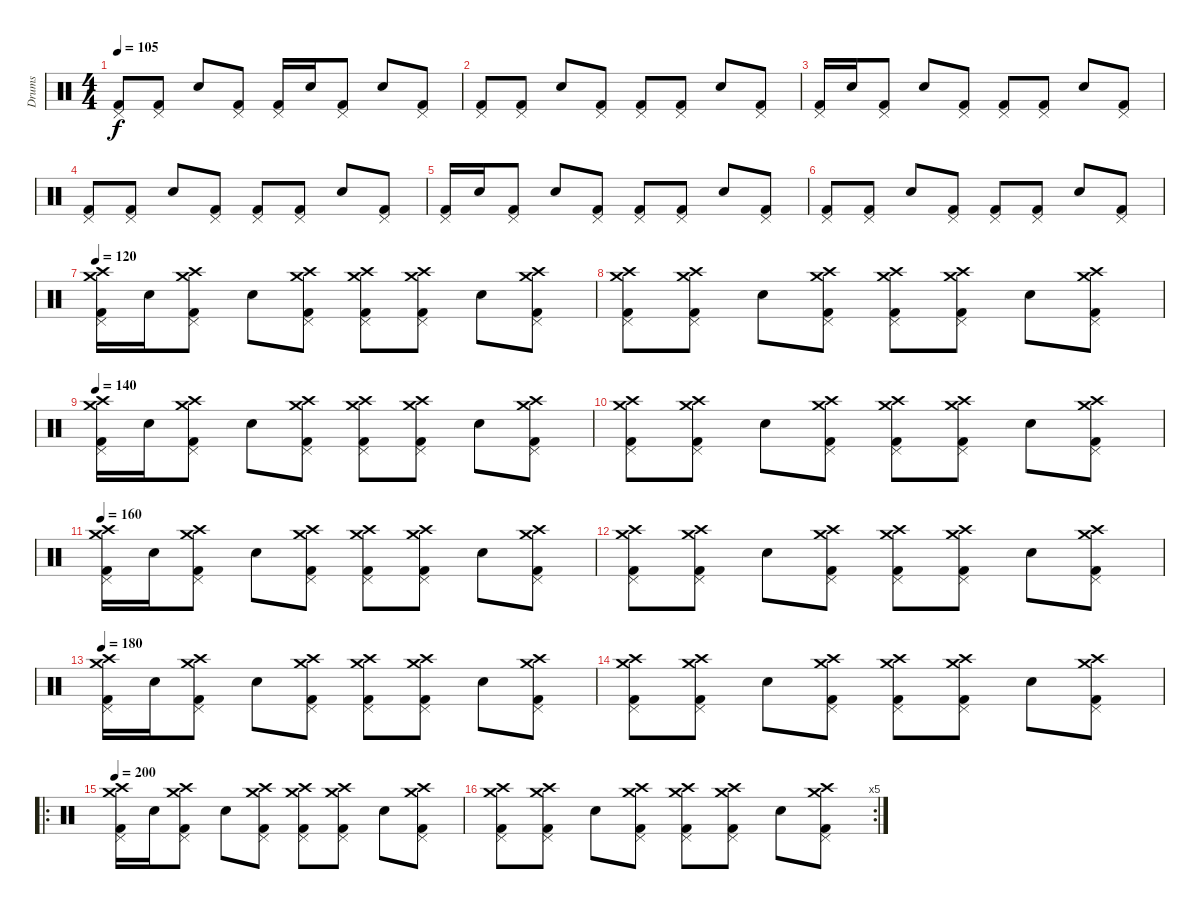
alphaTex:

\track ("Drums" "Drums") {instrument percussion}
\staff {score}
\articulation defaults
\ts (4 4)
\tempo 105
\clef neutral
\ks c
("Kick (hit) 2" "Pedal Hi-Hat (hit)").8{dy f} ("Kick (hit) 2" "Pedal Hi-Hat (hit)").8 "Snare (hit) 2".8 ("Kick (hit) 2" "Pedal Hi-Hat (hit)").8 ("Kick (hit) 2" "Pedal Hi-Hat (hit)").16 "Snare (hit) 2".16 ("Kick (hit) 2" "Pedal Hi-Hat (hit)").8 "Snare (hit) 2".8 ("Kick (hit) 2" "Pedal Hi-Hat (hit)").8 |
("Kick (hit) 2" "Pedal Hi-Hat (hit)").8 ("Kick (hit) 2" "Pedal Hi-Hat (hit)").8 "Snare (hit) 2".8 ("Kick (hit) 2" "Pedal Hi-Hat (hit)").8 ("Kick (hit) 2" "Pedal Hi-Hat (hit)").8 ("Kick (hit) 2" "Pedal Hi-Hat (hit)").8 "Snare (hit) 2".8 ("Kick (hit) 2" "Pedal Hi-Hat (hit)").8 |
("Kick (hit) 2" "Pedal Hi-Hat (hit)").16 "Snare (hit) 2".16 ("Kick (hit) 2" "Pedal Hi-Hat (hit)").8 "Snare (hit) 2".8 ("Kick (hit) 2" "Pedal Hi-Hat (hit)").8 ("Kick (hit) 2" "Pedal Hi-Hat (hit)").8 ("Kick (hit) 2" "Pedal Hi-Hat (hit)").8 "Snare (hit) 2".8 ("Kick (hit) 2" "Pedal Hi-Hat (hit)").8 |
("Kick (hit) 2" "Pedal Hi-Hat (hit)").8 ("Kick (hit) 2" "Pedal Hi-Hat (hit)").8 "Snare (hit) 2".8 ("Kick (hit) 2" "Pedal Hi-Hat (hit)").8 ("Kick (hit) 2" "Pedal Hi-Hat (hit)").8 ("Kick (hit) 2" "Pedal Hi-Hat (hit)").8 "Snare (hit) 2".8 ("Kick (hit) 2" "Pedal Hi-Hat (hit)").8 |
("Kick (hit) 2" "Pedal Hi-Hat (hit)").16 "Snare (hit) 2".16 ("Kick (hit) 2" "Pedal Hi-Hat (hit)").8 "Snare (hit) 2".8 ("Kick (hit) 2" "Pedal Hi-Hat (hit)").8 ("Kick (hit) 2" "Pedal Hi-Hat (hit)").8 ("Kick (hit) 2" "Pedal Hi-Hat (hit)").8 "Snare (hit) 2".8 ("Kick (hit) 2" "Pedal Hi-Hat (hit)").8 |
("Kick (hit) 2" "Pedal Hi-Hat (hit)").8 ("Kick (hit) 2" "Pedal Hi-Hat (hit)").8 "Snare (hit) 2".8 ("Kick (hit) 2" "Pedal Hi-Hat (hit)").8 ("Kick (hit) 2" "Pedal Hi-Hat (hit)").8 ("Kick (hit) 2" "Pedal Hi-Hat (hit)").8 "Snare (hit) 2".8 ("Kick (hit) 2" "Pedal Hi-Hat (hit)").8 |
\tempo 120
("Crash medium (hit)" "Kick (hit) 2" "Pedal Hi-Hat (hit)" "Crash high (hit)").16 "Snare (hit) 2".16 ("Crash medium (hit)" "Kick (hit) 2" "Pedal Hi-Hat (hit)" "Crash high (hit)").8 "Snare (hit) 2".8 ("Crash medium (hit)" "Kick (hit) 2" "Pedal Hi-Hat (hit)" "Crash high (hit)").8 ("Crash medium (hit)" "Kick (hit) 2" "Pedal Hi-Hat (hit)" "Crash high (hit)").8 ("Crash medium (hit)" "Kick (hit) 2" "Pedal Hi-Hat (hit)" "Crash high (hit)").8 "Snare (hit) 2".8 ("Crash medium (hit)" "Kick (hit) 2" "Pedal Hi-Hat (hit)" "Crash high (hit)").8 |
("Crash medium (hit)" "Kick (hit) 2" "Pedal Hi-Hat (hit)" "Crash high (hit)").8 ("Crash medium (hit)" "Kick (hit) 2" "Pedal Hi-Hat (hit)" "Crash high (hit)").8 "Snare (hit) 2".8 ("Crash medium (hit)" "Kick (hit) 2" "Pedal Hi-Hat (hit)" "Crash high (hit)").8 ("Crash medium (hit)" "Kick (hit) 2" "Pedal Hi-Hat (hit)" "Crash high (hit)").8 ("Crash medium (hit)" "Kick (hit) 2" "Pedal Hi-Hat (hit)" "Crash high (hit)").8 "Snare (hit) 2".8 ("Crash medium (hit)" "Kick (hit) 2" "Pedal Hi-Hat (hit)" "Crash high (hit)").8 |
\tempo 140
("Crash medium (hit)" "Kick (hit) 2" "Pedal Hi-Hat (hit)" "Crash high (hit)").16 "Snare (hit) 2".16 ("Crash medium (hit)" "Kick (hit) 2" "Pedal Hi-Hat (hit)" "Crash high (hit)").8 "Snare (hit) 2".8 ("Crash medium (hit)" "Kick (hit) 2" "Pedal Hi-Hat (hit)" "Crash high (hit)").8 ("Crash medium (hit)" "Kick (hit) 2" "Pedal Hi-Hat (hit)" "Crash high (hit)").8 ("Crash medium (hit)" "Kick (hit) 2" "Pedal Hi-Hat (hit)" "Crash high (hit)").8 "Snare (hit) 2".8 ("Crash medium (hit)" "Kick (hit) 2" "Pedal Hi-Hat (hit)" "Crash high (hit)").8 |
("Crash medium (hit)" "Kick (hit) 2" "Pedal Hi-Hat (hit)" "Crash high (hit)").8 ("Crash medium (hit)" "Kick (hit) 2" "Pedal Hi-Hat (hit)" "Crash high (hit)").8 "Snare (hit) 2".8 ("Crash medium (hit)" "Kick (hit) 2" "Pedal Hi-Hat (hit)" "Crash high (hit)").8 ("Crash medium (hit)" "Kick (hit) 2" "Pedal Hi-Hat (hit)" "Crash high (hit)").8 ("Crash medium (hit)" "Kick (hit) 2" "Pedal Hi-Hat (hit)" "Crash high (hit)").8 "Snare (hit) 2".8 ("Crash medium (hit)" "Kick (hit) 2" "Pedal Hi-Hat (hit)" "Crash high (hit)").8 |
\tempo 160
("Crash medium (hit)" "Kick (hit) 2" "Pedal Hi-Hat (hit)" "Crash high (hit)").16 "Snare (hit) 2".16 ("Crash medium (hit)" "Kick (hit) 2" "Pedal Hi-Hat (hit)" "Crash high (hit)").8 "Snare (hit) 2".8 ("Crash medium (hit)" "Kick (hit) 2" "Pedal Hi-Hat (hit)" "Crash high (hit)").8 ("Crash medium (hit)" "Kick (hit) 2" "Pedal Hi-Hat (hit)" "Crash high (hit)").8 ("Crash medium (hit)" "Kick (hit) 2" "Pedal Hi-Hat (hit)" "Crash high (hit)").8 "Snare (hit) 2".8 ("Crash medium (hit)" "Kick (hit) 2" "Pedal Hi-Hat (hit)" "Crash high (hit)").8 |
("Crash medium (hit)" "Kick (hit) 2" "Pedal Hi-Hat (hit)" "Crash high (hit)").8 ("Crash medium (hit)" "Kick (hit) 2" "Pedal Hi-Hat (hit)" "Crash high (hit)").8 "Snare (hit) 2".8 ("Crash medium (hit)" "Kick (hit) 2" "Pedal Hi-Hat (hit)" "Crash high (hit)").8 ("Crash medium (hit)" "Kick (hit) 2" "Pedal Hi-Hat (hit)" "Crash high (hit)").8 ("Crash medium (hit)" "Kick (hit) 2" "Pedal Hi-Hat (hit)" "Crash high (hit)").8 "Snare (hit) 2".8 ("Crash medium (hit)" "Kick (hit) 2" "Pedal Hi-Hat (hit)" "Crash high (hit)").8 |
\tempo 180
("Crash medium (hit)" "Kick (hit) 2" "Pedal Hi-Hat (hit)" "Crash high (hit)").16 "Snare (hit) 2".16 ("Crash medium (hit)" "Kick (hit) 2" "Pedal Hi-Hat (hit)" "Crash high (hit)").8 "Snare (hit) 2".8 ("Crash medium (hit)" "Kick (hit) 2" "Pedal Hi-Hat (hit)" "Crash high (hit)").8 ("Crash medium (hit)" "Kick (hit) 2" "Pedal Hi-Hat (hit)" "Crash high (hit)").8 ("Crash medium (hit)" "Kick (hit) 2" "Pedal Hi-Hat (hit)" "Crash high (hit)").8 "Snare (hit) 2".8 ("Crash medium (hit)" "Kick (hit) 2" "Pedal Hi-Hat (hit)" "Crash high (hit)").8 |
("Crash medium (hit)" "Kick (hit) 2" "Pedal Hi-Hat (hit)" "Crash high (hit)").8 ("Crash medium (hit)" "Kick (hit) 2" "Pedal Hi-Hat (hit)" "Crash high (hit)").8 "Snare (hit) 2".8 ("Crash medium (hit)" "Kick (hit) 2" "Pedal Hi-Hat (hit)" "Crash high (hit)").8 ("Crash medium (hit)" "Kick (hit) 2" "Pedal Hi-Hat (hit)" "Crash high (hit)").8 ("Crash medium (hit)" "Kick (hit) 2" "Pedal Hi-Hat (hit)" "Crash high (hit)").8 "Snare (hit) 2".8 ("Crash medium (hit)" "Kick (hit) 2" "Pedal Hi-Hat (hit)" "Crash high (hit)").8 |
\ro
\tempo 200
("Crash medium (hit)" "Kick (hit) 2" "Pedal Hi-Hat (hit)" "Crash high (hit)").16 "Snare (hit) 2".16 ("Crash medium (hit)" "Kick (hit) 2" "Pedal Hi-Hat (hit)" "Crash high (hit)").8 "Snare (hit) 2".8 ("Crash medium (hit)" "Kick (hit) 2" "Pedal Hi-Hat (hit)" "Crash high (hit)").8 ("Crash medium (hit)" "Kick (hit) 2" "Pedal Hi-Hat (hit)" "Crash high (hit)").8 ("Crash medium (hit)" "Kick (hit) 2" "Pedal Hi-Hat (hit)" "Crash high (hit)").8 "Snare (hit) 2".8 ("Crash medium (hit)" "Kick (hit) 2" "Pedal Hi-Hat (hit)" "Crash high (hit)").8 |
\rc 5
("Crash medium (hit)" "Kick (hit) 2" "Pedal Hi-Hat (hit)" "Crash high (hit)").8 ("Crash medium (hit)" "Kick (hit) 2" "Pedal Hi-Hat (hit)" "Crash high (hit)").8 "Snare (hit) 2".8 ("Crash medium (hit)" "Kick (hit) 2" "Pedal Hi-Hat (hit)" "Crash high (hit)").8 ("Crash medium (hit)" "Kick (hit) 2" "Pedal Hi-Hat (hit)" "Crash high (hit)").8 ("Crash medium (hit)" "Kick (hit) 2" "Pedal Hi-Hat (hit)" "Crash high (hit)").8 "Snare (hit) 2".8 ("Crash medium (hit)" "Kick (hit) 2" "Pedal Hi-Hat (hit)" "Crash high (hit)").8
